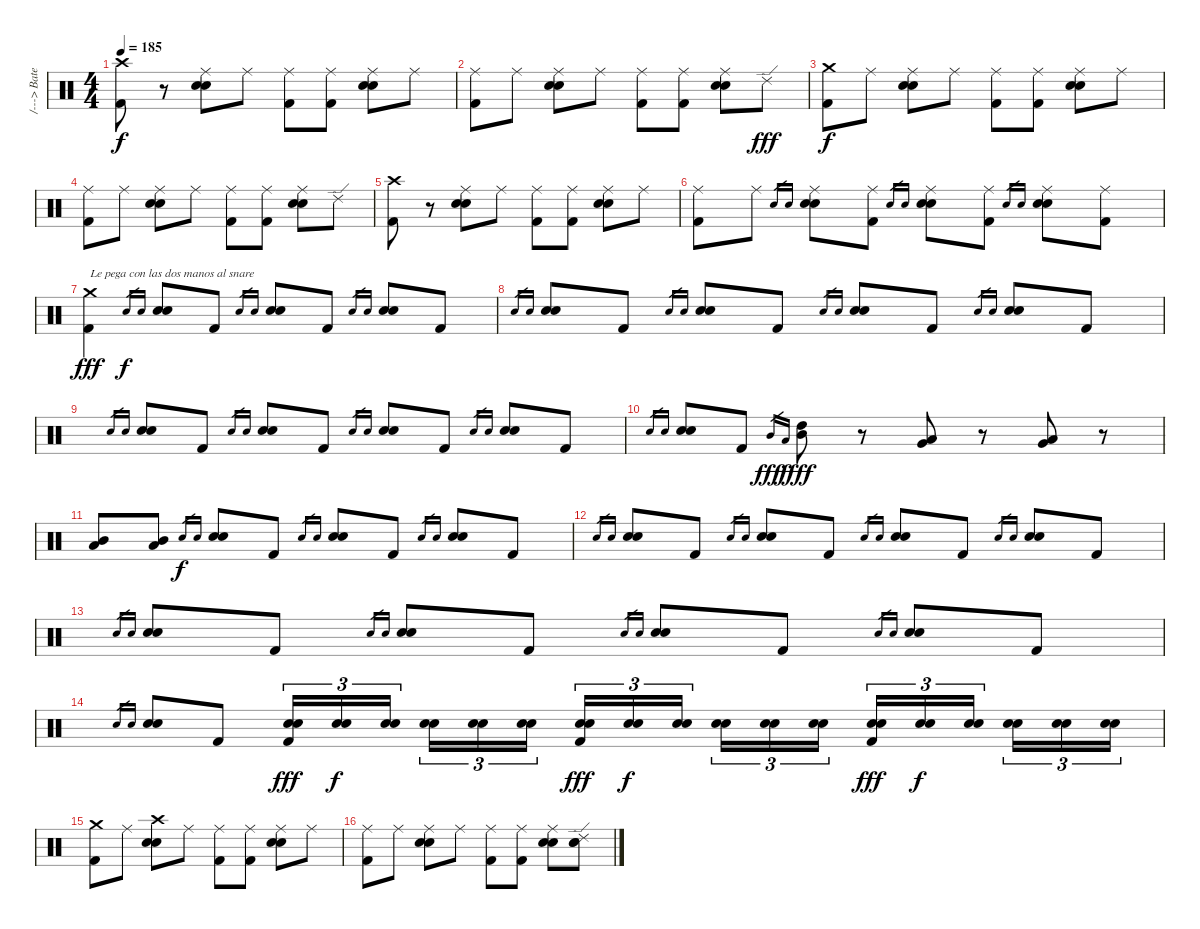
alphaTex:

\track ("/---> Bateria <----/" "/---> Bate") {instrument percussion}
\staff {score}
\articulation defaults
\ts (4 4)
\tempo 185
\clef neutral
\ks c
("Crash high (hit)" "Kick (hit) 2").8{dy f} r.8 ("Ride (middle)" "Snare (hit) 2" "Electric Snare (hit)").8 "Ride (middle)".8 ("Ride (middle)" "Kick (hit) 2").8 ("Ride (middle)" "Kick (hit) 2").8 ("Ride (middle)" "Snare (hit) 2" "Electric Snare (hit)").8 "Ride (middle)".8 |
("Ride (middle)" "Kick (hit) 2").8 "Ride (middle)".8 ("Ride (middle)" "Snare (hit) 2" "Electric Snare (hit)").8 "Ride (middle)".8 ("Ride (middle)" "Kick (hit) 2").8 ("Ride (middle)" "Kick (hit) 2").8 ("Ride (middle)" "Snare (hit) 2" "Electric Snare (hit)").8 "Ride (edge) 2".8{dy fff} |
("Crash medium (hit)" "Kick (hit) 2").8{dy f} "Ride (middle)".8 ("Ride (middle)" "Snare (hit) 2" "Electric Snare (hit)").8 "Ride (middle)".8 ("Ride (middle)" "Kick (hit) 2").8 ("Ride (middle)" "Kick (hit) 2").8 ("Ride (middle)" "Snare (hit) 2" "Electric Snare (hit)").8 "Ride (middle)".8 |
("Ride (middle)" "Kick (hit) 2").8 "Ride (middle)".8 ("Ride (middle)" "Snare (hit) 2" "Electric Snare (hit)").8 "Ride (middle)".8 ("Ride (middle)" "Kick (hit) 2").8 ("Ride (middle)" "Kick (hit) 2").8 ("Ride (middle)" "Snare (hit) 2" "Electric Snare (hit)").8 "Ride (edge) 2".8 |
("Crash high (hit)" "Kick (hit) 2").8 r.8 ("Ride (middle)" "Snare (hit) 2" "Electric Snare (hit)").8 "Ride (middle)".8 ("Ride (middle)" "Kick (hit) 2").8 ("Ride (middle)" "Kick (hit) 2").8 ("Ride (middle)" "Snare (hit) 2" "Electric Snare (hit)").8 "Ride (middle)".8 |
("Ride (middle)" "Kick (hit) 2").8 "Ride (middle)".8 "Snare (hit) 2".16{gr} "Electric Snare (hit)".16{gr} ("Ride (middle)" "Snare (hit) 2" "Electric Snare (hit)").8 ("Ride (middle)" "Kick (hit) 2").8 "Snare (hit) 2".16{gr} "Electric Snare (hit)".16{gr} ("Ride (middle)" "Snare (hit) 2" "Electric Snare (hit)").8 ("Ride (middle)" "Kick (hit) 2").8 "Snare (hit) 2".16{gr} "Electric Snare (hit)".16{gr} ("Ride (middle)" "Snare (hit) 2" "Electric Snare (hit)").8 ("Ride (middle)" "Kick (hit) 2").8 |
("Crash medium (hit)" "Kick (hit) 2").4{txt "Le pega con las dos manos al snare" dy fff} "Snare (hit) 2".16{gr dy f} "Electric Snare (hit)".16{gr} ("Snare (hit) 2" "Electric Snare (hit)").8 "Kick (hit) 2".8 "Snare (hit) 2".16{gr} "Electric Snare (hit)".16{gr} ("Snare (hit) 2" "Electric Snare (hit)").8 "Kick (hit) 2".8 "Snare (hit) 2".16{gr} "Electric Snare (hit)".16{gr} ("Snare (hit) 2" "Electric Snare (hit)").8 "Kick (hit) 2".8 |
"Snare (hit) 2".16{gr} "Electric Snare (hit)".16{gr} ("Snare (hit) 2" "Electric Snare (hit)").8 "Kick (hit) 2".8 "Snare (hit) 2".16{gr} "Electric Snare (hit)".16{gr} ("Snare (hit) 2" "Electric Snare (hit)").8 "Kick (hit) 2".8 "Snare (hit) 2".16{gr} "Electric Snare (hit)".16{gr} ("Snare (hit) 2" "Electric Snare (hit)").8 "Kick (hit) 2".8 "Snare (hit) 2".16{gr} "Electric Snare (hit)".16{gr} ("Snare (hit) 2" "Electric Snare (hit)").8 "Kick (hit) 2".8 |
"Snare (hit) 2".16{gr} "Electric Snare (hit)".16{gr} ("Snare (hit) 2" "Electric Snare (hit)").8 "Kick (hit) 2".8 "Snare (hit) 2".16{gr} "Electric Snare (hit)".16{gr} ("Snare (hit) 2" "Electric Snare (hit)").8 "Kick (hit) 2".8 "Snare (hit) 2".16{gr} "Electric Snare (hit)".16{gr} ("Snare (hit) 2" "Electric Snare (hit)").8 "Kick (hit) 2".8 "Snare (hit) 2".16{gr} "Electric Snare (hit)".16{gr} ("Snare (hit) 2" "Electric Snare (hit)").8 "Kick (hit) 2".8 |
"Snare (hit) 2".16{gr} "Electric Snare (hit)".16{gr} ("Snare (hit) 2" "Electric Snare (hit)").8 "Kick (hit) 2".8 "Mid Tom (hit)".16{gr dy fff} "Low Tom (hit)".16{gr dy f} ("High Tom (hit)" "Mid Tom (hit)").8{dy fff} r.8 ("Low Tom (hit)" "Very Low Tom (hit)").8 r.8 ("Very Low Tom (hit)" "Low Floor Tom (hit)").8 r.8 |
("Mid Tom (hit)" "Low Tom (hit)").8 ("Mid Tom (hit)" "Low Tom (hit)").8 "Snare (hit) 2".16{gr dy f} "Electric Snare (hit)".16{gr} ("Snare (hit) 2" "Electric Snare (hit)").8 "Kick (hit) 2".8 "Snare (hit) 2".16{gr} "Electric Snare (hit)".16{gr} ("Snare (hit) 2" "Electric Snare (hit)").8 "Kick (hit) 2".8 "Snare (hit) 2".16{gr} "Electric Snare (hit)".16{gr} ("Snare (hit) 2" "Electric Snare (hit)").8 "Kick (hit) 2".8 |
"Snare (hit) 2".16{gr} "Electric Snare (hit)".16{gr} ("Snare (hit) 2" "Electric Snare (hit)").8 "Kick (hit) 2".8 "Snare (hit) 2".16{gr} "Electric Snare (hit)".16{gr} ("Snare (hit) 2" "Electric Snare (hit)").8 "Kick (hit) 2".8 "Snare (hit) 2".16{gr} "Electric Snare (hit)".16{gr} ("Snare (hit) 2" "Electric Snare (hit)").8 "Kick (hit) 2".8 "Snare (hit) 2".16{gr} "Electric Snare (hit)".16{gr} ("Snare (hit) 2" "Electric Snare (hit)").8 "Kick (hit) 2".8 |
"Snare (hit) 2".16{gr} "Electric Snare (hit)".16{gr} ("Snare (hit) 2" "Electric Snare (hit)").8 "Kick (hit) 2".8 "Snare (hit) 2".16{gr} "Electric Snare (hit)".16{gr} ("Snare (hit) 2" "Electric Snare (hit)").8 "Kick (hit) 2".8 "Snare (hit) 2".16{gr} "Electric Snare (hit)".16{gr} ("Snare (hit) 2" "Electric Snare (hit)").8 "Kick (hit) 2".8 "Snare (hit) 2".16{gr} "Electric Snare (hit)".16{gr} ("Snare (hit) 2" "Electric Snare (hit)").8 "Kick (hit) 2".8 |
"Snare (hit) 2".16{gr} "Electric Snare (hit)".16{gr} ("Snare (hit) 2" "Electric Snare (hit)").8 "Kick (hit) 2".8 ("Snare (hit) 2" "Electric Snare (hit)" "Kick (hit) 2").16{tu (3 2) dy fff} ("Snare (hit) 2" "Electric Snare (hit)").16{tu (3 2) dy f} ("Snare (hit) 2" "Electric Snare (hit)").16{tu (3 2)} ("Snare (hit) 2" "Electric Snare (hit)").16{tu (3 2)} ("Snare (hit) 2" "Electric Snare (hit)").16{tu (3 2)} ("Snare (hit) 2" "Electric Snare (hit)").16{tu (3 2)} ("Snare (hit) 2" "Electric Snare (hit)" "Kick (hit) 2").16{tu (3 2) dy fff} ("Snare (hit) 2" "Electric Snare (hit)").16{tu (3 2) dy f} ("Snare (hit) 2" "Electric Snare (hit)").16{tu (3 2)} ("Snare (hit) 2" "Electric Snare (hit)").16{tu (3 2)} ("Snare (hit) 2" "Electric Snare (hit)").16{tu (3 2)} ("Snare (hit) 2" "Electric Snare (hit)").16{tu (3 2)} ("Snare (hit) 2" "Electric Snare (hit)" "Kick (hit) 2").16{tu (3 2) dy fff} ("Snare (hit) 2" "Electric Snare (hit)").16{tu (3 2) dy f} ("Snare (hit) 2" "Electric Snare (hit)").16{tu (3 2)} ("Snare (hit) 2" "Electric Snare (hit)").16{tu (3 2)} ("Snare (hit) 2" "Electric Snare (hit)").16{tu (3 2)} ("Snare (hit) 2" "Electric Snare (hit)").16{tu (3 2)} |
("Crash medium (hit)" "Kick (hit) 2").8 "Ride (middle)".8 ("Crash high (hit)" "Snare (hit) 2" "Electric Snare (hit)").8 "Ride (middle)".8 ("Ride (middle)" "Kick (hit) 2").8 ("Ride (middle)" "Kick (hit) 2").8 ("Ride (middle)" "Snare (hit) 2" "Electric Snare (hit)").8 "Ride (middle)".8 |
("Ride (middle)" "Kick (hit) 2").8 "Ride (middle)".8 ("Ride (middle)" "Snare (hit) 2" "Electric Snare (hit)").8 "Ride (middle)".8 ("Ride (middle)" "Kick (hit) 2").8 ("Ride (middle)" "Kick (hit) 2").8 ("Ride (middle)" "Snare (hit) 2" "Electric Snare (hit)").8 ("Ride (edge) 2" "Snare (hit) 2" "Electric Snare (hit)").8
